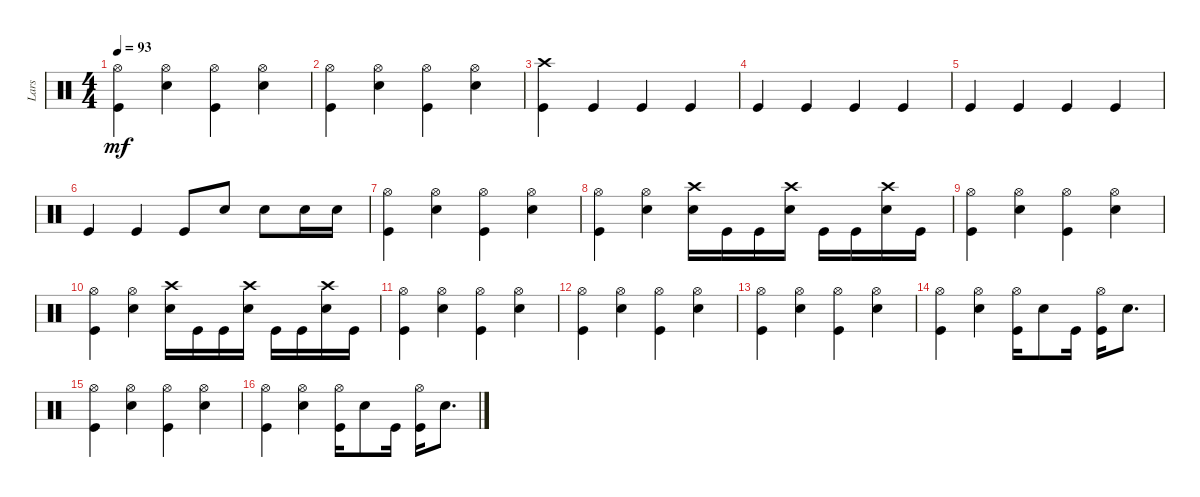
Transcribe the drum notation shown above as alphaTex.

\track ("Lars" "Lars") {instrument percussion}
\staff {score}
\articulation defaults
\ts (4 4)
\tempo 93
\clef neutral
\ks c
("Hi-Hat (open)" "Kick (hit)").4{dy mf} ("Hi-Hat (open)" "Snare (hit) 2").4 ("Hi-Hat (open)" "Kick (hit)").4 ("Hi-Hat (open)" "Snare (hit) 2").4 |
("Hi-Hat (open)" "Kick (hit)").4 ("Hi-Hat (open)" "Snare (hit) 2").4 ("Hi-Hat (open)" "Kick (hit)").4 ("Hi-Hat (open)" "Snare (hit) 2").4 |
("Crash high (hit)" "Kick (hit)").4 "Kick (hit)".4 "Kick (hit)".4 "Kick (hit)".4 |
"Kick (hit)".4 "Kick (hit)".4 "Kick (hit)".4 "Kick (hit)".4 |
"Kick (hit)".4 "Kick (hit)".4 "Kick (hit)".4 "Kick (hit)".4 |
"Kick (hit)".4 "Kick (hit)".4 "Kick (hit)".8 "Snare (hit) 2".8 "Snare (hit) 2".8 "Snare (hit) 2".16 "Snare (hit) 2".16 |
("Hi-Hat (open)" "Kick (hit)").4 ("Hi-Hat (open)" "Snare (hit) 2").4 ("Hi-Hat (open)" "Kick (hit)").4 ("Hi-Hat (open)" "Snare (hit) 2").4 |
("Hi-Hat (open)" "Kick (hit)").4 ("Hi-Hat (open)" "Snare (hit) 2").4 ("Crash high (hit)" "Snare (hit) 2").16 "Kick (hit)".16 "Kick (hit)".16 ("Crash high (hit)" "Snare (hit) 2").16 "Kick (hit)".16 "Kick (hit)".16 ("Crash high (hit)" "Snare (hit) 2").16 "Kick (hit)".16 |
("Hi-Hat (open)" "Kick (hit)").4 ("Hi-Hat (open)" "Snare (hit) 2").4 ("Hi-Hat (open)" "Kick (hit)").4 ("Hi-Hat (open)" "Snare (hit) 2").4 |
("Hi-Hat (open)" "Kick (hit)").4 ("Hi-Hat (open)" "Snare (hit) 2").4 ("Crash high (hit)" "Snare (hit) 2").16 "Kick (hit)".16 "Kick (hit)".16 ("Crash high (hit)" "Snare (hit) 2").16 "Kick (hit)".16 "Kick (hit)".16 ("Crash high (hit)" "Snare (hit) 2").16 "Kick (hit)".16 |
("Hi-Hat (open)" "Kick (hit)").4 ("Hi-Hat (open)" "Snare (hit) 2").4 ("Hi-Hat (open)" "Kick (hit)").4 ("Hi-Hat (open)" "Snare (hit) 2").4 |
("Hi-Hat (open)" "Kick (hit)").4 ("Hi-Hat (open)" "Snare (hit) 2").4 ("Hi-Hat (open)" "Kick (hit)").4 ("Hi-Hat (open)" "Snare (hit) 2").4 |
("Hi-Hat (open)" "Kick (hit)").4 ("Hi-Hat (open)" "Snare (hit) 2").4 ("Hi-Hat (open)" "Kick (hit)").4 ("Hi-Hat (open)" "Snare (hit) 2").4 |
("Hi-Hat (open)" "Kick (hit)").4 ("Hi-Hat (open)" "Snare (hit) 2").4 ("Hi-Hat (open)" "Kick (hit)").16 "Snare (hit) 2".8 "Kick (hit)".16 ("Hi-Hat (open)" "Kick (hit)").16 "Snare (hit) 2".8{d} |
("Hi-Hat (open)" "Kick (hit)").4 ("Hi-Hat (open)" "Snare (hit) 2").4 ("Hi-Hat (open)" "Kick (hit)").4 ("Hi-Hat (open)" "Snare (hit) 2").4 |
("Hi-Hat (open)" "Kick (hit)").4 ("Hi-Hat (open)" "Snare (hit) 2").4 ("Hi-Hat (open)" "Kick (hit)").16 "Snare (hit) 2".8 "Kick (hit)".16 ("Hi-Hat (open)" "Kick (hit)").16 "Snare (hit) 2".8{d}
